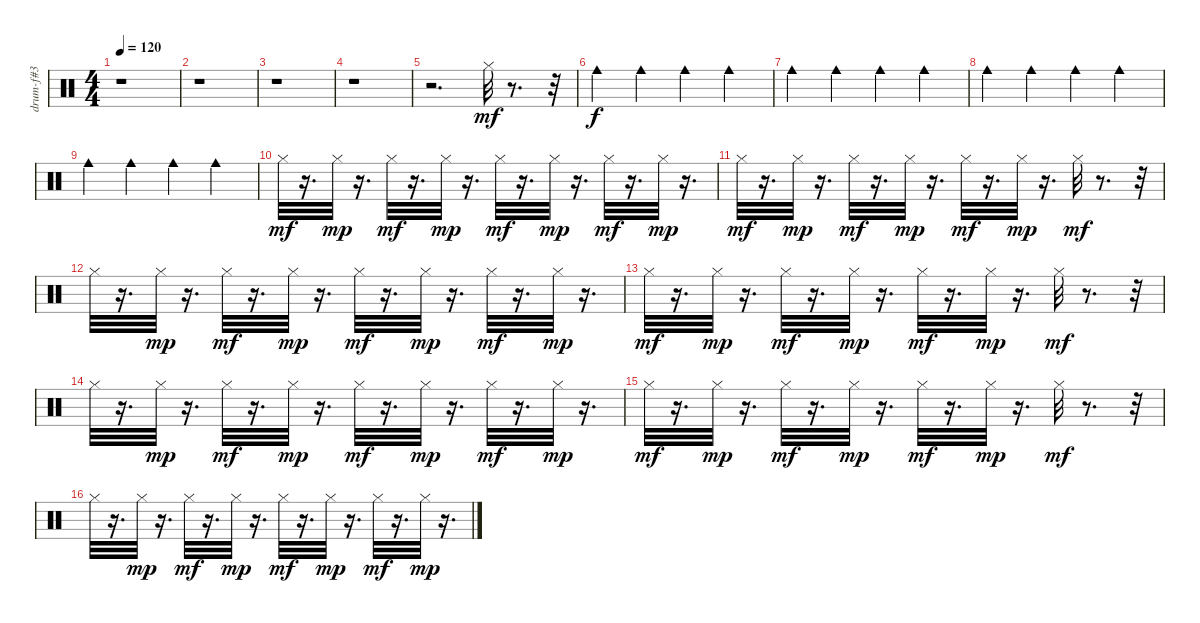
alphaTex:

\track ("drum-f#3" "drum-f#3") {instrument percussion}
\staff {score}
\articulation defaults
\ts (4 4)
\tempo 120
\clef neutral
\ks c
r.1{dy mf} |
r.1 |
r.1 |
r.1 |
r.2{d} "Hi-Hat (closed)".32 r.8{d} r.32 |
"Cowbell medium (hit)".4{dy f} "Cowbell medium (hit)".4 "Cowbell medium (hit)".4 "Cowbell medium (hit)".4 |
"Cowbell medium (hit)".4 "Cowbell medium (hit)".4 "Cowbell medium (hit)".4 "Cowbell medium (hit)".4 |
"Cowbell medium (hit)".4 "Cowbell medium (hit)".4 "Cowbell medium (hit)".4 "Cowbell medium (hit)".4 |
"Cowbell medium (hit)".4 "Cowbell medium (hit)".4 "Cowbell medium (hit)".4 "Cowbell medium (hit)".4 |
"Hi-Hat (closed)".32{dy mf} r.16{d} "Hi-Hat (closed)".32{dy mp} r.16{d} "Hi-Hat (closed)".32{dy mf} r.16{d} "Hi-Hat (closed)".32{dy mp} r.16{d} "Hi-Hat (closed)".32{dy mf} r.16{d} "Hi-Hat (closed)".32{dy mp} r.16{d} "Hi-Hat (closed)".32{dy mf} r.16{d} "Hi-Hat (closed)".32{dy mp} r.16{d} |
"Hi-Hat (closed)".32{dy mf} r.16{d} "Hi-Hat (closed)".32{dy mp} r.16{d} "Hi-Hat (closed)".32{dy mf} r.16{d} "Hi-Hat (closed)".32{dy mp} r.16{d} "Hi-Hat (closed)".32{dy mf} r.16{d} "Hi-Hat (closed)".32{dy mp} r.16{d} "Hi-Hat (closed)".32{dy mf} r.8{d} r.32 |
"Hi-Hat (closed)".32 r.16{d} "Hi-Hat (closed)".32{dy mp} r.16{d} "Hi-Hat (closed)".32{dy mf} r.16{d} "Hi-Hat (closed)".32{dy mp} r.16{d} "Hi-Hat (closed)".32{dy mf} r.16{d} "Hi-Hat (closed)".32{dy mp} r.16{d} "Hi-Hat (closed)".32{dy mf} r.16{d} "Hi-Hat (closed)".32{dy mp} r.16{d} |
"Hi-Hat (closed)".32{dy mf} r.16{d} "Hi-Hat (closed)".32{dy mp} r.16{d} "Hi-Hat (closed)".32{dy mf} r.16{d} "Hi-Hat (closed)".32{dy mp} r.16{d} "Hi-Hat (closed)".32{dy mf} r.16{d} "Hi-Hat (closed)".32{dy mp} r.16{d} "Hi-Hat (closed)".32{dy mf} r.8{d} r.32 |
"Hi-Hat (closed)".32 r.16{d} "Hi-Hat (closed)".32{dy mp} r.16{d} "Hi-Hat (closed)".32{dy mf} r.16{d} "Hi-Hat (closed)".32{dy mp} r.16{d} "Hi-Hat (closed)".32{dy mf} r.16{d} "Hi-Hat (closed)".32{dy mp} r.16{d} "Hi-Hat (closed)".32{dy mf} r.16{d} "Hi-Hat (closed)".32{dy mp} r.16{d} |
"Hi-Hat (closed)".32{dy mf} r.16{d} "Hi-Hat (closed)".32{dy mp} r.16{d} "Hi-Hat (closed)".32{dy mf} r.16{d} "Hi-Hat (closed)".32{dy mp} r.16{d} "Hi-Hat (closed)".32{dy mf} r.16{d} "Hi-Hat (closed)".32{dy mp} r.16{d} "Hi-Hat (closed)".32{dy mf} r.8{d} r.32 |
"Hi-Hat (closed)".32 r.16{d} "Hi-Hat (closed)".32{dy mp} r.16{d} "Hi-Hat (closed)".32{dy mf} r.16{d} "Hi-Hat (closed)".32{dy mp} r.16{d} "Hi-Hat (closed)".32{dy mf} r.16{d} "Hi-Hat (closed)".32{dy mp} r.16{d} "Hi-Hat (closed)".32{dy mf} r.16{d} "Hi-Hat (closed)".32{dy mp} r.16{d}
